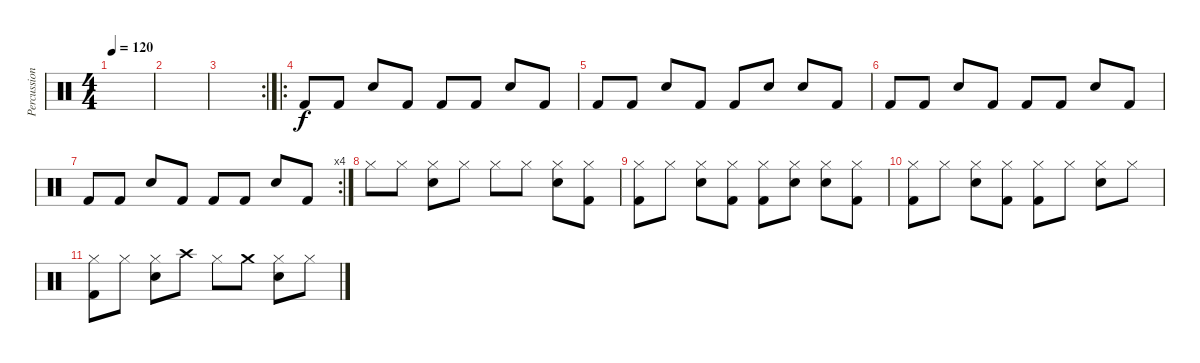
\track ("Percussion" "Percussion") {instrument percussion}
\staff {score}
\articulation defaults
\ts (4 4)
\tempo 120
\clef neutral
\ks c
|
|
\rc 2
|
\ro "Kick (hit) 2".8 "Kick (hit) 2".8 "Electric Snare (hit)".8 "Kick (hit) 2".8 "Kick (hit) 2".8 "Kick (hit) 2".8 "Electric Snare (hit)".8 "Kick (hit) 2".8
|
"Kick (hit) 2".8 "Kick (hit) 2".8 "Electric Snare (hit)".8 "Kick (hit) 2".8 "Kick (hit) 2".8 "Electric Snare (hit)".8 "Electric Snare (hit)".8 "Kick (hit) 2".8 |
"Kick (hit) 2".8 "Kick (hit) 2".8 "Electric Snare (hit)".8 "Kick (hit) 2".8 "Kick (hit) 2".8 "Kick (hit) 2".8 "Electric Snare (hit)".8 "Kick (hit) 2".8 |
\rc 4 "Kick (hit) 2".8 "Kick (hit) 2".8 "Electric Snare (hit)".8 "Kick (hit) 2".8 "Kick (hit) 2".8 "Kick (hit) 2".8 "Electric Snare (hit)".8 "Kick (hit) 2".8
|
"Hi-Hat (closed)".8 "Hi-Hat (closed)".8 ("Hi-Hat (closed)" "Electric Snare (hit)").8 "Hi-Hat (closed)".8 "Hi-Hat (closed)".8 "Hi-Hat (closed)".8 ("Hi-Hat (closed)" "Electric Snare (hit)").8 ("Hi-Hat (closed)" "Kick (hit) 2").8 |
("Hi-Hat (closed)" "Kick (hit) 2").8 "Hi-Hat (closed)".8 ("Hi-Hat (closed)" "Electric Snare (hit)").8 ("Hi-Hat (closed)" "Kick (hit) 2").8 ("Hi-Hat (closed)" "Kick (hit) 2").8 ("Hi-Hat (closed)" "Electric Snare (hit)").8 ("Hi-Hat (closed)" "Electric Snare (hit)").8 ("Hi-Hat (closed)" "Kick (hit) 2").8 |
("Hi-Hat (closed)" "Kick (hit) 2").8 "Hi-Hat (closed)".8 ("Hi-Hat (closed)" "Electric Snare (hit)").8 ("Hi-Hat (closed)" "Kick (hit) 2").8 ("Hi-Hat (closed)" "Kick (hit) 2").8 "Hi-Hat (closed)".8 ("Hi-Hat (closed)" "Electric Snare (hit)").8 "Hi-Hat (closed)".8 |
("Hi-Hat (closed)" "Kick (hit) 2").8 "Hi-Hat (closed)".8 ("Hi-Hat (closed)" "Electric Snare (hit)").8 "Crash high (hit)".8 "Hi-Hat (closed)".8 "Crash medium (hit)".8 ("Hi-Hat (closed)" "Electric Snare (hit)").8 "Hi-Hat (closed)".8
